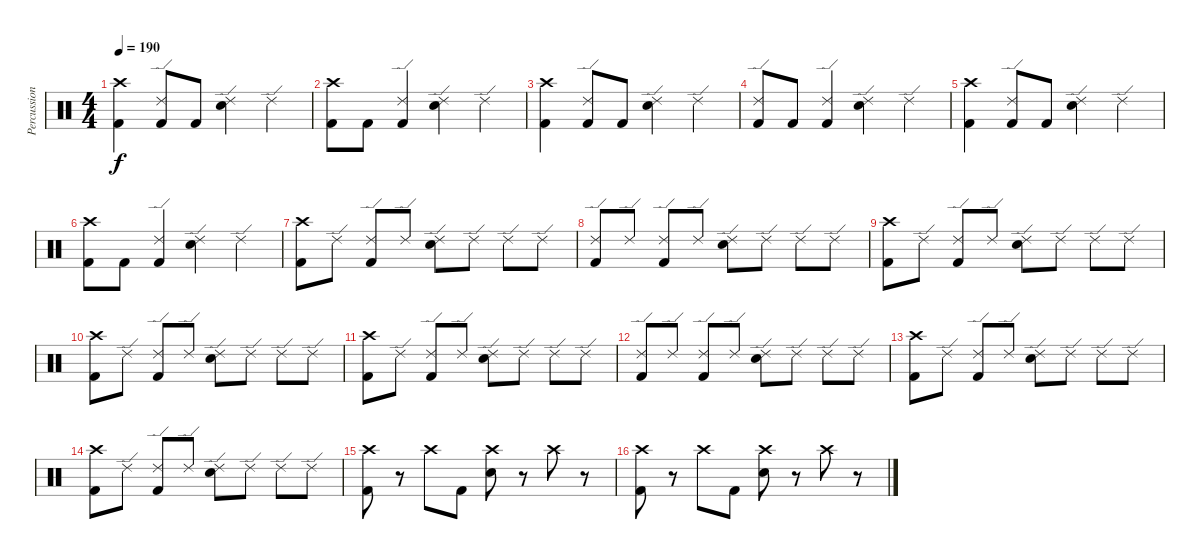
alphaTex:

\track ("Percussion" "Percussion") {instrument percussion}
\staff {score}
\articulation defaults
\ts (4 4)
\tempo 190
\clef neutral
\ks c
("Crash high (hit)" "Kick (hit) 2").4{dy f} ("Ride (edge) 2" "Kick (hit) 2").8 "Kick (hit) 2".8 ("Ride (edge) 2" "Snare (hit) 2").4 "Ride (edge) 2".4 |
("Crash high (hit)" "Kick (hit) 2").8 "Kick (hit) 2".8 ("Ride (edge) 2" "Kick (hit) 2").4 ("Ride (edge) 2" "Snare (hit) 2").4 "Ride (edge) 2".4 |
("Crash high (hit)" "Kick (hit) 2").4 ("Ride (edge) 2" "Kick (hit) 2").8 "Kick (hit) 2".8 ("Ride (edge) 2" "Snare (hit) 2").4 "Ride (edge) 2".4 |
("Ride (edge) 2" "Kick (hit) 2").8 "Kick (hit) 2".8 ("Ride (edge) 2" "Kick (hit) 2").4 ("Ride (edge) 2" "Snare (hit) 2").4 "Ride (edge) 2".4 |
("Crash high (hit)" "Kick (hit) 2").4 ("Ride (edge) 2" "Kick (hit) 2").8 "Kick (hit) 2".8 ("Ride (edge) 2" "Snare (hit) 2").4 "Ride (edge) 2".4 |
("Crash high (hit)" "Kick (hit) 2").8 "Kick (hit) 2".8 ("Ride (edge) 2" "Kick (hit) 2").4 ("Ride (edge) 2" "Snare (hit) 2").4 "Ride (edge) 2".4 |
("Crash high (hit)" "Kick (hit) 2").8 "Ride (edge) 2".8 ("Ride (edge) 2" "Kick (hit) 2").8 "Ride (edge) 2".8 ("Ride (edge) 2" "Snare (hit) 2").8 "Ride (edge) 2".8 "Ride (edge) 2".8 "Ride (edge) 2".8 |
("Ride (edge) 2" "Kick (hit) 2").8 "Ride (edge) 2".8 ("Ride (edge) 2" "Kick (hit) 2").8 "Ride (edge) 2".8 ("Ride (edge) 2" "Snare (hit) 2").8 "Ride (edge) 2".8 "Ride (edge) 2".8 "Ride (edge) 2".8 |
("Crash high (hit)" "Kick (hit) 2").8 "Ride (edge) 2".8 ("Ride (edge) 2" "Kick (hit) 2").8 "Ride (edge) 2".8 ("Ride (edge) 2" "Snare (hit) 2").8 "Ride (edge) 2".8 "Ride (edge) 2".8 "Ride (edge) 2".8 |
("Crash high (hit)" "Kick (hit) 2").8 "Ride (edge) 2".8 ("Ride (edge) 2" "Kick (hit) 2").8 "Ride (edge) 2".8 ("Ride (edge) 2" "Snare (hit) 2").8 "Ride (edge) 2".8 "Ride (edge) 2".8 "Ride (edge) 2".8 |
("Crash high (hit)" "Kick (hit) 2").8 "Ride (edge) 2".8 ("Ride (edge) 2" "Kick (hit) 2").8 "Ride (edge) 2".8 ("Ride (edge) 2" "Snare (hit) 2").8 "Ride (edge) 2".8 "Ride (edge) 2".8 "Ride (edge) 2".8 |
("Ride (edge) 2" "Kick (hit) 2").8 "Ride (edge) 2".8 ("Ride (edge) 2" "Kick (hit) 2").8 "Ride (edge) 2".8 ("Ride (edge) 2" "Snare (hit) 2").8 "Ride (edge) 2".8 "Ride (edge) 2".8 "Ride (edge) 2".8 |
("Crash high (hit)" "Kick (hit) 2").8 "Ride (edge) 2".8 ("Ride (edge) 2" "Kick (hit) 2").8 "Ride (edge) 2".8 ("Ride (edge) 2" "Snare (hit) 2").8 "Ride (edge) 2".8 "Ride (edge) 2".8 "Ride (edge) 2".8 |
("Crash high (hit)" "Kick (hit) 2").8 "Ride (edge) 2".8 ("Ride (edge) 2" "Kick (hit) 2").8 "Ride (edge) 2".8 ("Ride (edge) 2" "Snare (hit) 2").8 "Ride (edge) 2".8 "Ride (edge) 2".8 "Ride (edge) 2".8 |
("Crash high (hit)" "Kick (hit) 2").8 r.8 "Crash high (hit)".8 "Kick (hit) 2".8 ("Crash high (hit)" "Snare (hit) 2").8 r.8 "Crash high (hit)".8 r.8 |
("Crash high (hit)" "Kick (hit) 2").8 r.8 "Crash high (hit)".8 "Kick (hit) 2".8 ("Crash high (hit)" "Snare (hit) 2").8 r.8 "Crash high (hit)".8 r.8
